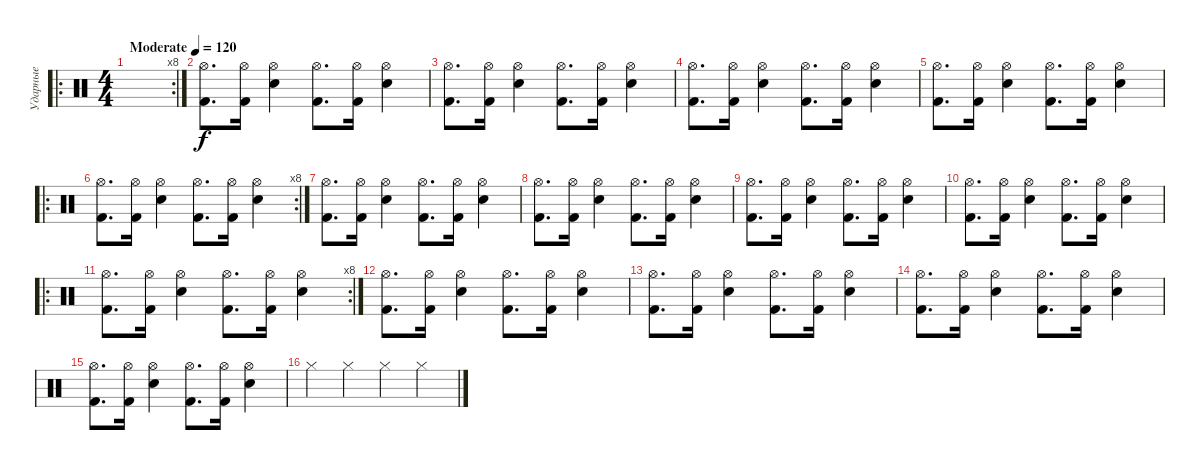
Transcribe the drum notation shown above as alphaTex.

\track ("Ударные" "Ударные") {instrument percussion}
\staff {score}
\articulation defaults
\ro
\rc 8
\ts (4 4)
\tempo (120 "Moderate")
\clef neutral
\ks c
|
("Hi-Hat (open)" "Kick (hit) 2").8{d} ("Hi-Hat (open)" "Kick (hit) 2").16 ("Hi-Hat (open)" "Snare (hit) 2").4 ("Hi-Hat (open)" "Kick (hit) 2").8{d} ("Hi-Hat (open)" "Kick (hit) 2").16 ("Hi-Hat (open)" "Snare (hit) 2").4 |
("Hi-Hat (open)" "Kick (hit) 2").8{d} ("Hi-Hat (open)" "Kick (hit) 2").16 ("Hi-Hat (open)" "Snare (hit) 2").4 ("Hi-Hat (open)" "Kick (hit) 2").8{d} ("Hi-Hat (open)" "Kick (hit) 2").16 ("Hi-Hat (open)" "Snare (hit) 2").4 |
("Hi-Hat (open)" "Kick (hit) 2").8{d} ("Hi-Hat (open)" "Kick (hit) 2").16 ("Hi-Hat (open)" "Snare (hit) 2").4 ("Hi-Hat (open)" "Kick (hit) 2").8{d} ("Hi-Hat (open)" "Kick (hit) 2").16 ("Hi-Hat (open)" "Snare (hit) 2").4 |
("Hi-Hat (open)" "Kick (hit) 2").8{d} ("Hi-Hat (open)" "Kick (hit) 2").16 ("Hi-Hat (open)" "Snare (hit) 2").4 ("Hi-Hat (open)" "Kick (hit) 2").8{d} ("Hi-Hat (open)" "Kick (hit) 2").16 ("Hi-Hat (open)" "Snare (hit) 2").4 |
\ro
\rc 8
("Hi-Hat (open)" "Kick (hit) 2").8{d} ("Hi-Hat (open)" "Kick (hit) 2").16 ("Hi-Hat (open)" "Snare (hit) 2").4 ("Hi-Hat (open)" "Kick (hit) 2").8{d} ("Hi-Hat (open)" "Kick (hit) 2").16 ("Hi-Hat (open)" "Snare (hit) 2").4 |
("Hi-Hat (open)" "Kick (hit) 2").8{d} ("Hi-Hat (open)" "Kick (hit) 2").16 ("Hi-Hat (open)" "Snare (hit) 2").4 ("Hi-Hat (open)" "Kick (hit) 2").8{d} ("Hi-Hat (open)" "Kick (hit) 2").16 ("Hi-Hat (open)" "Snare (hit) 2").4 |
("Hi-Hat (open)" "Kick (hit) 2").8{d} ("Hi-Hat (open)" "Kick (hit) 2").16 ("Hi-Hat (open)" "Snare (hit) 2").4 ("Hi-Hat (open)" "Kick (hit) 2").8{d} ("Hi-Hat (open)" "Kick (hit) 2").16 ("Hi-Hat (open)" "Snare (hit) 2").4 |
("Hi-Hat (open)" "Kick (hit) 2").8{d} ("Hi-Hat (open)" "Kick (hit) 2").16 ("Hi-Hat (open)" "Snare (hit) 2").4 ("Hi-Hat (open)" "Kick (hit) 2").8{d} ("Hi-Hat (open)" "Kick (hit) 2").16 ("Hi-Hat (open)" "Snare (hit) 2").4 |
("Hi-Hat (open)" "Kick (hit) 2").8{d} ("Hi-Hat (open)" "Kick (hit) 2").16 ("Hi-Hat (open)" "Snare (hit) 2").4 ("Hi-Hat (open)" "Kick (hit) 2").8{d} ("Hi-Hat (open)" "Kick (hit) 2").16 ("Hi-Hat (open)" "Snare (hit) 2").4 |
\ro
\rc 8
("Hi-Hat (open)" "Kick (hit) 2").8{d} ("Hi-Hat (open)" "Kick (hit) 2").16 ("Hi-Hat (open)" "Snare (hit) 2").4 ("Hi-Hat (open)" "Kick (hit) 2").8{d} ("Hi-Hat (open)" "Kick (hit) 2").16 ("Hi-Hat (open)" "Snare (hit) 2").4 |
("Hi-Hat (open)" "Kick (hit) 2").8{d} ("Hi-Hat (open)" "Kick (hit) 2").16 ("Hi-Hat (open)" "Snare (hit) 2").4 ("Hi-Hat (open)" "Kick (hit) 2").8{d} ("Hi-Hat (open)" "Kick (hit) 2").16 ("Hi-Hat (open)" "Snare (hit) 2").4 |
("Hi-Hat (open)" "Kick (hit) 2").8{d} ("Hi-Hat (open)" "Kick (hit) 2").16 ("Hi-Hat (open)" "Snare (hit) 2").4 ("Hi-Hat (open)" "Kick (hit) 2").8{d} ("Hi-Hat (open)" "Kick (hit) 2").16 ("Hi-Hat (open)" "Snare (hit) 2").4 |
("Hi-Hat (open)" "Kick (hit) 2").8{d} ("Hi-Hat (open)" "Kick (hit) 2").16 ("Hi-Hat (open)" "Snare (hit) 2").4 ("Hi-Hat (open)" "Kick (hit) 2").8{d} ("Hi-Hat (open)" "Kick (hit) 2").16 ("Hi-Hat (open)" "Snare (hit) 2").4 |
("Hi-Hat (open)" "Kick (hit) 2").8{d} ("Hi-Hat (open)" "Kick (hit) 2").16 ("Hi-Hat (open)" "Snare (hit) 2").4 ("Hi-Hat (open)" "Kick (hit) 2").8{d} ("Hi-Hat (open)" "Kick (hit) 2").16 ("Hi-Hat (open)" "Snare (hit) 2").4 |
"Hi-Hat (closed)".4 "Hi-Hat (closed)".4 "Hi-Hat (closed)".4 "Hi-Hat (closed)".4
